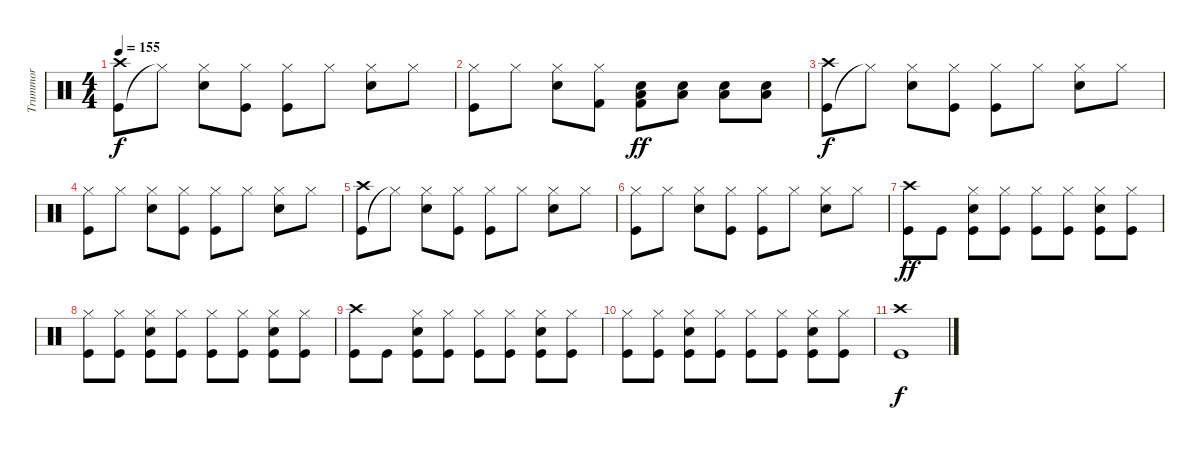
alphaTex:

\track ("Trummor" "Trummor") {instrument percussion}
\staff {score}
\articulation defaults
\ts (4 4)
\tempo 155
\clef neutral
\ks c
("Kick (hit)" "Crash high (hit)").8{dy f} "Hi-Hat (closed)"{t}.8 ("Snare (hit) 2" "Hi-Hat (closed)").8 ("Kick (hit)" "Hi-Hat (closed)").8 ("Kick (hit)" "Hi-Hat (closed)").8 "Hi-Hat (closed)".8 ("Snare (hit) 2" "Hi-Hat (closed)").8 "Hi-Hat (closed)".8 |
("Kick (hit)" "Hi-Hat (closed)").8 "Hi-Hat (closed)".8 ("Snare (hit) 2" "Hi-Hat (closed)").8 ("Kick (hit) 2" "Hi-Hat (closed)").8 ("Snare (hit) 2" "Kick (hit) 2" "Low Floor Tom (hit)").8{dy ff} ("Snare (hit) 2" "Low Floor Tom (hit)").8 ("Snare (hit) 2" "Low Floor Tom (hit)").8 ("Snare (hit) 2" "Low Floor Tom (hit)").8 |
("Kick (hit)" "Crash high (hit)").8{dy f} "Hi-Hat (closed)"{t}.8 ("Snare (hit) 2" "Hi-Hat (closed)").8 ("Kick (hit)" "Hi-Hat (closed)").8 ("Kick (hit)" "Hi-Hat (closed)").8 "Hi-Hat (closed)".8 ("Snare (hit) 2" "Hi-Hat (closed)").8 "Hi-Hat (closed)".8 |
("Kick (hit)" "Hi-Hat (closed)").8 "Hi-Hat (closed)".8 ("Snare (hit) 2" "Hi-Hat (closed)").8 ("Kick (hit)" "Hi-Hat (closed)").8 ("Kick (hit)" "Hi-Hat (closed)").8 "Hi-Hat (closed)".8 ("Snare (hit) 2" "Hi-Hat (closed)").8 "Hi-Hat (closed)".8 |
("Kick (hit)" "Crash high (hit)").8 "Hi-Hat (closed)"{t}.8 ("Snare (hit) 2" "Hi-Hat (closed)").8 ("Kick (hit)" "Hi-Hat (closed)").8 ("Kick (hit)" "Hi-Hat (closed)").8 "Hi-Hat (closed)".8 ("Snare (hit) 2" "Hi-Hat (closed)").8 "Hi-Hat (closed)".8 |
("Kick (hit)" "Hi-Hat (closed)").8 "Hi-Hat (closed)".8 ("Snare (hit) 2" "Hi-Hat (closed)").8 ("Kick (hit)" "Hi-Hat (closed)").8 ("Kick (hit)" "Hi-Hat (closed)").8 "Hi-Hat (closed)".8 ("Snare (hit) 2" "Hi-Hat (closed)").8 "Hi-Hat (closed)".8 |
("Kick (hit)" "Crash high (hit)").8{dy ff} "Kick (hit)".8 ("Kick (hit)" "Snare (hit) 2" "Hi-Hat (closed)").8 ("Kick (hit)" "Hi-Hat (closed)").8 ("Kick (hit)" "Hi-Hat (closed)").8 ("Kick (hit)" "Hi-Hat (closed)").8 ("Kick (hit)" "Snare (hit) 2" "Hi-Hat (closed)").8 ("Kick (hit)" "Hi-Hat (closed)").8 |
("Kick (hit)" "Hi-Hat (closed)").8 ("Kick (hit)" "Hi-Hat (closed)").8 ("Kick (hit)" "Snare (hit) 2" "Hi-Hat (closed)").8 ("Kick (hit)" "Hi-Hat (closed)").8 ("Kick (hit)" "Hi-Hat (closed)").8 ("Kick (hit)" "Hi-Hat (closed)").8 ("Kick (hit)" "Snare (hit) 2" "Hi-Hat (closed)").8 ("Kick (hit)" "Hi-Hat (closed)").8 |
("Kick (hit)" "Crash high (hit)").8 "Kick (hit)".8 ("Kick (hit)" "Snare (hit) 2" "Hi-Hat (closed)").8 ("Kick (hit)" "Hi-Hat (closed)").8 ("Kick (hit)" "Hi-Hat (closed)").8 ("Kick (hit)" "Hi-Hat (closed)").8 ("Kick (hit)" "Snare (hit) 2" "Hi-Hat (closed)").8 ("Kick (hit)" "Hi-Hat (closed)").8 |
("Kick (hit)" "Hi-Hat (closed)").8 ("Kick (hit)" "Hi-Hat (closed)").8 ("Kick (hit)" "Snare (hit) 2" "Hi-Hat (closed)").8 ("Kick (hit)" "Hi-Hat (closed)").8 ("Kick (hit)" "Hi-Hat (closed)").8 ("Kick (hit)" "Hi-Hat (closed)").8 ("Kick (hit)" "Snare (hit) 2" "Hi-Hat (closed)").8 ("Kick (hit)" "Hi-Hat (closed)").8 |
("Kick (hit)" "Crash high (hit)").1{dy f}
